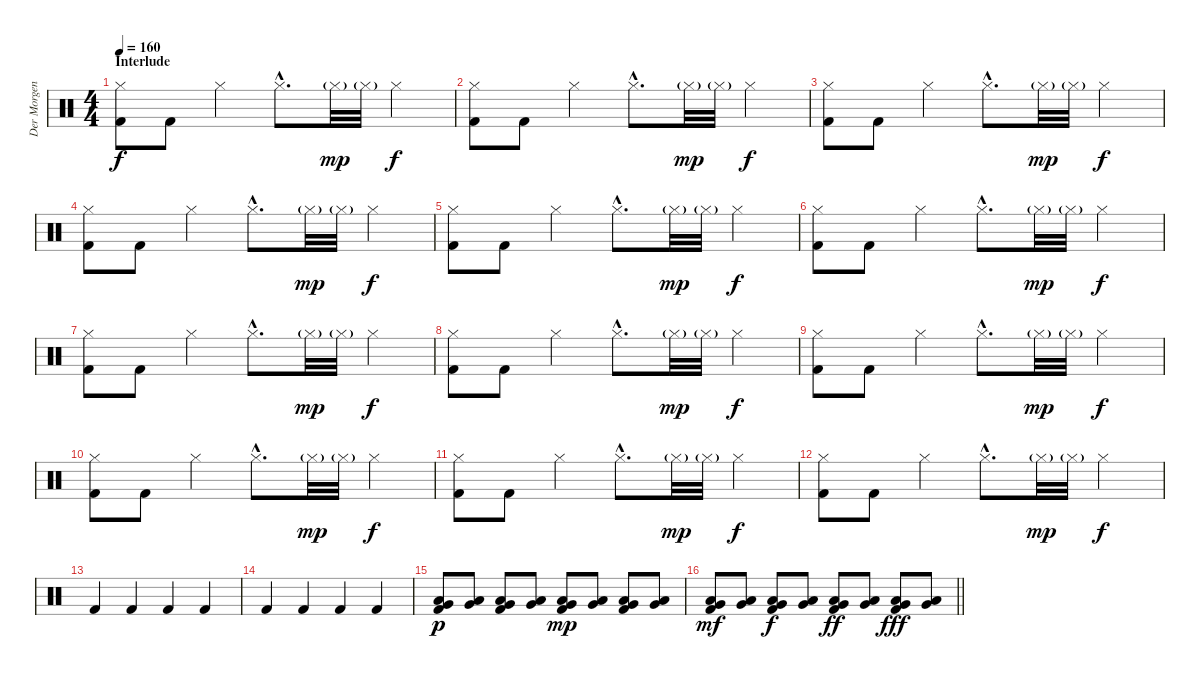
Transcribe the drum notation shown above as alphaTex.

\track ("Der Morgenstern" "Der Morgen") {instrument percussion}
\staff {score}
\articulation defaults
\ts (4 4)
\section ("" "Interlude")
\tempo 160
\clef neutral
\ks c
("Hi-Hat (closed)" "Kick (hit) 2").8{dy f} "Kick (hit) 2".8 "Hi-Hat (closed)".4 "Hi-Hat (closed)"{hac}.8{d} "Hi-Hat (closed)"{g}.32{dy mp} "Hi-Hat (closed)"{g}.32 "Hi-Hat (closed)".4{dy f} |
("Hi-Hat (closed)" "Kick (hit) 2").8 "Kick (hit) 2".8 "Hi-Hat (closed)".4 "Hi-Hat (closed)"{hac}.8{d} "Hi-Hat (closed)"{g}.32{dy mp} "Hi-Hat (closed)"{g}.32 "Hi-Hat (closed)".4{dy f} |
("Hi-Hat (closed)" "Kick (hit) 2").8 "Kick (hit) 2".8 "Hi-Hat (closed)".4 "Hi-Hat (closed)"{hac}.8{d} "Hi-Hat (closed)"{g}.32{dy mp} "Hi-Hat (closed)"{g}.32 "Hi-Hat (closed)".4{dy f} |
("Hi-Hat (closed)" "Kick (hit) 2").8 "Kick (hit) 2".8 "Hi-Hat (closed)".4 "Hi-Hat (closed)"{hac}.8{d} "Hi-Hat (closed)"{g}.32{dy mp} "Hi-Hat (closed)"{g}.32 "Hi-Hat (closed)".4{dy f} |
("Hi-Hat (closed)" "Kick (hit) 2").8 "Kick (hit) 2".8 "Hi-Hat (closed)".4 "Hi-Hat (closed)"{hac}.8{d} "Hi-Hat (closed)"{g}.32{dy mp} "Hi-Hat (closed)"{g}.32 "Hi-Hat (closed)".4{dy f} |
("Hi-Hat (closed)" "Kick (hit) 2").8 "Kick (hit) 2".8 "Hi-Hat (closed)".4 "Hi-Hat (closed)"{hac}.8{d} "Hi-Hat (closed)"{g}.32{dy mp} "Hi-Hat (closed)"{g}.32 "Hi-Hat (closed)".4{dy f} |
("Hi-Hat (closed)" "Kick (hit) 2").8 "Kick (hit) 2".8 "Hi-Hat (closed)".4 "Hi-Hat (closed)"{hac}.8{d} "Hi-Hat (closed)"{g}.32{dy mp} "Hi-Hat (closed)"{g}.32 "Hi-Hat (closed)".4{dy f} |
("Hi-Hat (closed)" "Kick (hit) 2").8 "Kick (hit) 2".8 "Hi-Hat (closed)".4 "Hi-Hat (closed)"{hac}.8{d} "Hi-Hat (closed)"{g}.32{dy mp} "Hi-Hat (closed)"{g}.32 "Hi-Hat (closed)".4{dy f} |
("Hi-Hat (closed)" "Kick (hit) 2").8 "Kick (hit) 2".8 "Hi-Hat (closed)".4 "Hi-Hat (closed)"{hac}.8{d} "Hi-Hat (closed)"{g}.32{dy mp} "Hi-Hat (closed)"{g}.32 "Hi-Hat (closed)".4{dy f} |
("Hi-Hat (closed)" "Kick (hit) 2").8 "Kick (hit) 2".8 "Hi-Hat (closed)".4 "Hi-Hat (closed)"{hac}.8{d} "Hi-Hat (closed)"{g}.32{dy mp} "Hi-Hat (closed)"{g}.32 "Hi-Hat (closed)".4{dy f} |
("Hi-Hat (closed)" "Kick (hit) 2").8 "Kick (hit) 2".8 "Hi-Hat (closed)".4 "Hi-Hat (closed)"{hac}.8{d} "Hi-Hat (closed)"{g}.32{dy mp} "Hi-Hat (closed)"{g}.32 "Hi-Hat (closed)".4{dy f} |
("Hi-Hat (closed)" "Kick (hit) 2").8 "Kick (hit) 2".8 "Hi-Hat (closed)".4 "Hi-Hat (closed)"{hac}.8{d} "Hi-Hat (closed)"{g}.32{dy mp} "Hi-Hat (closed)"{g}.32 "Hi-Hat (closed)".4{dy f} |
"Kick (hit) 2".4 "Kick (hit) 2".4 "Kick (hit) 2".4 "Kick (hit) 2".4 |
"Kick (hit) 2".4 "Kick (hit) 2".4 "Kick (hit) 2".4 "Kick (hit) 2".4 |
("Very Low Tom (hit)" "Low Floor Tom (hit)" "Kick (hit) 2").8{dy p} ("Very Low Tom (hit)" "Low Floor Tom (hit)").8 ("Very Low Tom (hit)" "Low Floor Tom (hit)" "Kick (hit) 2").8 ("Very Low Tom (hit)" "Low Floor Tom (hit)").8 ("Very Low Tom (hit)" "Low Floor Tom (hit)" "Kick (hit) 2").8{dy mp} ("Very Low Tom (hit)" "Low Floor Tom (hit)").8 ("Very Low Tom (hit)" "Low Floor Tom (hit)" "Kick (hit) 2").8 ("Very Low Tom (hit)" "Low Floor Tom (hit)").8 |
\barLineRight lightlight
("Very Low Tom (hit)" "Low Floor Tom (hit)" "Kick (hit) 2").8{dy mf} ("Very Low Tom (hit)" "Low Floor Tom (hit)").8 ("Very Low Tom (hit)" "Low Floor Tom (hit)" "Kick (hit) 2").8{dy f} ("Very Low Tom (hit)" "Low Floor Tom (hit)").8 ("Very Low Tom (hit)" "Low Floor Tom (hit)" "Kick (hit) 2").8{dy ff} ("Very Low Tom (hit)" "Low Floor Tom (hit)").8 ("Very Low Tom (hit)" "Low Floor Tom (hit)" "Kick (hit) 2").8{dy fff} ("Very Low Tom (hit)" "Low Floor Tom (hit)").8
